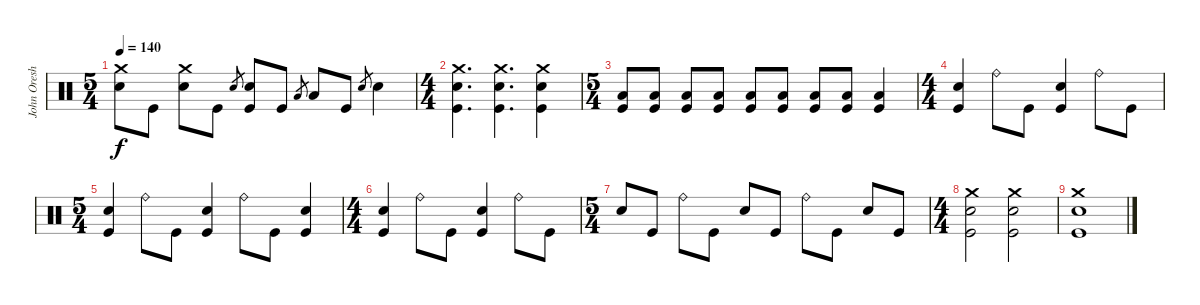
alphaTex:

\track ("John Oreshnick (drums)" "John Oresh") {instrument percussion}
\staff {score}
\articulation defaults
\ts (5 4)
\tempo 140
\clef neutral
\ks c
("Crash medium (hit)" "Snare (hit) 2").8{dy f} "Kick (hit)".8 ("Crash medium (hit)" "Snare (hit) 2").8 "Kick (hit)".8 "Snare (hit) 2".8{gr} ("Snare (hit) 2" "Kick (hit)").8 "Kick (hit)".8 "Low Tom (hit)".8{gr} "Low Tom (hit)".8 "Kick (hit)".8 "Snare (hit) 2".8{gr} "Snare (hit) 2".4 |
\ts (4 4)
("Crash medium (hit)" "Snare (hit) 2" "Kick (hit)").4{d} ("Crash medium (hit)" "Snare (hit) 2" "Kick (hit)").4{d} ("Crash medium (hit)" "Snare (hit) 2" "Kick (hit)").4 |
\ts (5 4)
("Low Floor Tom (hit)" "Kick (hit)").8 ("Low Floor Tom (hit)" "Kick (hit)").8 ("Low Floor Tom (hit)" "Kick (hit)").8 ("Low Floor Tom (hit)" "Kick (hit)").8 ("Low Floor Tom (hit)" "Kick (hit)").8 ("Low Floor Tom (hit)" "Kick (hit)").8 ("Low Floor Tom (hit)" "Kick (hit)").8 ("Low Floor Tom (hit)" "Kick (hit)").8 ("Low Floor Tom (hit)" "Kick (hit)").4 |
\ts (4 4)
("Snare (hit) 2" "Kick (hit)").4 "Ride (bell)".8 "Kick (hit)".8 ("Snare (hit) 2" "Kick (hit)").4 "Ride (bell)".8 "Kick (hit)".8 |
\ts (5 4)
("Snare (hit) 2" "Kick (hit)").4 "Ride (bell)".8 "Kick (hit)".8 ("Snare (hit) 2" "Kick (hit)").4 "Ride (bell)".8 "Kick (hit)".8 ("Snare (hit) 2" "Kick (hit)").4 |
\ts (4 4)
("Snare (hit) 2" "Kick (hit)").4 "Ride (bell)".8 "Kick (hit)".8 ("Snare (hit) 2" "Kick (hit)").4 "Ride (bell)".8 "Kick (hit)".8 |
\ts (5 4)
"Snare (hit) 2".8 "Kick (hit)".8 "Ride (bell)".8 "Kick (hit)".8 "Snare (hit) 2".8 "Kick (hit)".8 "Ride (bell)".8 "Kick (hit)".8 "Snare (hit) 2".8 "Kick (hit)".8 |
\ts (4 4)
("Crash medium (hit)" "Snare (hit) 2" "Kick (hit)").2 ("Crash medium (hit)" "Snare (hit) 2" "Kick (hit)").2 |
("Crash medium (hit)" "Snare (hit) 2" "Kick (hit)").1
